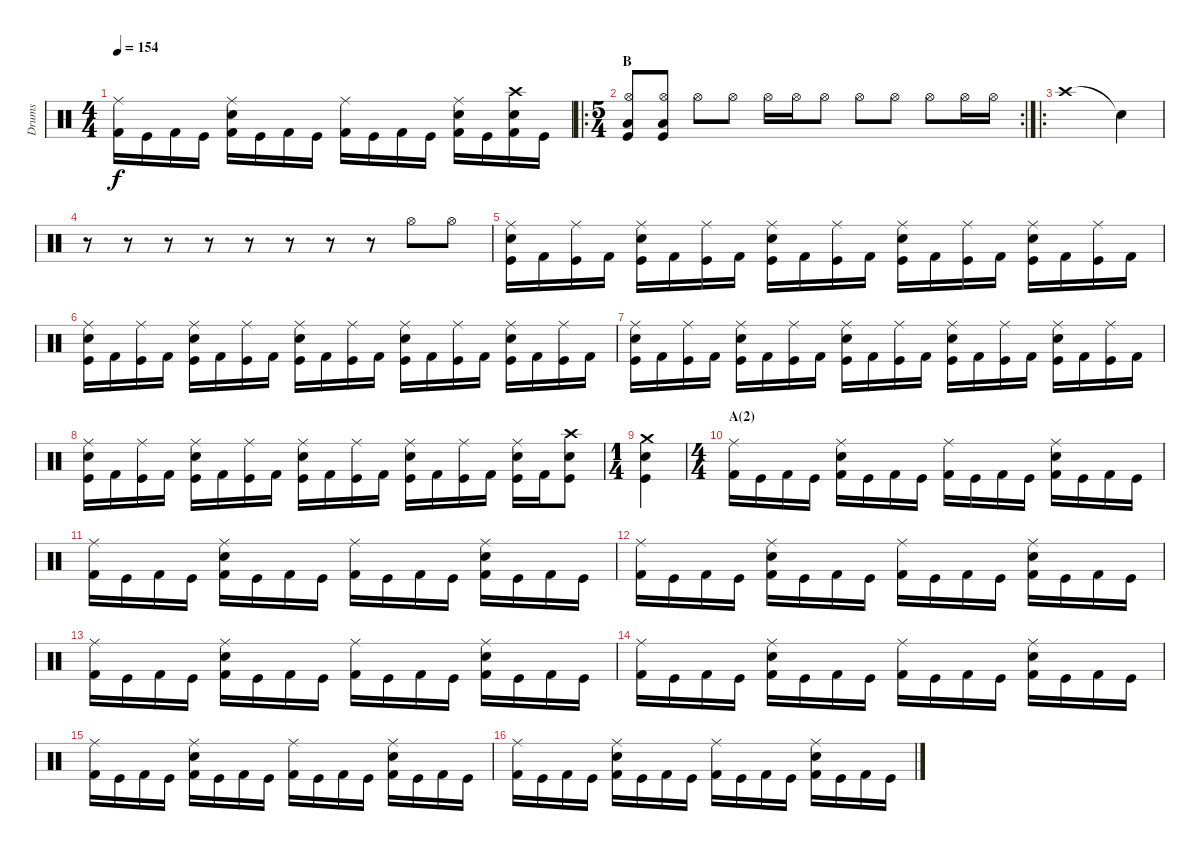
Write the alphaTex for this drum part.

\track ("Drums" "Drums") {instrument percussion}
\staff {score}
\articulation defaults
\ts (4 4)
\tempo 154
\clef neutral
\ks c
("Ride (middle)" "Kick (hit) 2").16{dy f} "Kick (hit)".16 "Kick (hit) 2".16 "Kick (hit)".16 ("Ride (middle)" "Electric Snare (hit)" "Kick (hit) 2").16 "Kick (hit)".16 "Kick (hit) 2".16 "Kick (hit)".16 ("Ride (middle)" "Kick (hit) 2").16 "Kick (hit)".16 "Kick (hit) 2".16 "Kick (hit)".16 ("Ride (middle)" "Electric Snare (hit)" "Kick (hit) 2").16 "Kick (hit)".16 ("Crash high (hit)" "Electric Snare (hit)" "Kick (hit) 2").16 "Kick (hit)".16 |
\ro
\rc 2
\ts (5 4)
\section ("" "B")
("Hi-Hat (open)" "Low Floor Tom (hit)" "Kick (hit)").8 ("Hi-Hat (open)" "Low Floor Tom (hit)" "Kick (hit)").8 "Hi-Hat (open)".8 "Hi-Hat (open)".8 "Hi-Hat (open)".16 "Hi-Hat (open)".16 "Hi-Hat (open)".8 "Hi-Hat (open)".8 "Hi-Hat (open)".8 "Hi-Hat (open)".8 "Hi-Hat (open)".16 "Hi-Hat (open)".16 |
\ro "Crash high (hit)".1 "Snare (hit)"{t}.4
|
r.8 r.8 r.8 r.8 r.8 r.8 r.8 r.8 "Hi-Hat (open)".8 "Hi-Hat (open)".8 |
("Ride (middle)" "Electric Snare (hit)" "Kick (hit)").16 "Kick (hit) 2".16 ("Ride (middle)" "Kick (hit)").16 "Kick (hit) 2".16 ("Ride (middle)" "Electric Snare (hit)" "Kick (hit)").16 "Kick (hit) 2".16 ("Ride (middle)" "Kick (hit)").16 "Kick (hit) 2".16 ("Ride (middle)" "Electric Snare (hit)" "Kick (hit)").16 "Kick (hit) 2".16 ("Ride (middle)" "Kick (hit)").16 "Kick (hit) 2".16 ("Ride (middle)" "Electric Snare (hit)" "Kick (hit)").16 "Kick (hit) 2".16 ("Ride (middle)" "Kick (hit)").16 "Kick (hit) 2".16 ("Ride (middle)" "Electric Snare (hit)" "Kick (hit)").16 "Kick (hit) 2".16 ("Ride (middle)" "Kick (hit)").16 "Kick (hit) 2".16 |
("Ride (middle)" "Electric Snare (hit)" "Kick (hit)").16 "Kick (hit) 2".16 ("Ride (middle)" "Kick (hit)").16 "Kick (hit) 2".16 ("Ride (middle)" "Electric Snare (hit)" "Kick (hit)").16 "Kick (hit) 2".16 ("Ride (middle)" "Kick (hit)").16 "Kick (hit) 2".16 ("Ride (middle)" "Electric Snare (hit)" "Kick (hit)").16 "Kick (hit) 2".16 ("Ride (middle)" "Kick (hit)").16 "Kick (hit) 2".16 ("Ride (middle)" "Electric Snare (hit)" "Kick (hit)").16 "Kick (hit) 2".16 ("Ride (middle)" "Kick (hit)").16 "Kick (hit) 2".16 ("Ride (middle)" "Electric Snare (hit)" "Kick (hit)").16 "Kick (hit) 2".16 ("Ride (middle)" "Kick (hit)").16 "Kick (hit) 2".16 |
("Ride (middle)" "Electric Snare (hit)" "Kick (hit)").16 "Kick (hit) 2".16 ("Ride (middle)" "Kick (hit)").16 "Kick (hit) 2".16 ("Ride (middle)" "Electric Snare (hit)" "Kick (hit)").16 "Kick (hit) 2".16 ("Ride (middle)" "Kick (hit)").16 "Kick (hit) 2".16 ("Ride (middle)" "Electric Snare (hit)" "Kick (hit)").16 "Kick (hit) 2".16 ("Ride (middle)" "Kick (hit)").16 "Kick (hit) 2".16 ("Ride (middle)" "Electric Snare (hit)" "Kick (hit)").16 "Kick (hit) 2".16 ("Ride (middle)" "Kick (hit)").16 "Kick (hit) 2".16 ("Ride (middle)" "Electric Snare (hit)" "Kick (hit)").16 "Kick (hit) 2".16 ("Ride (middle)" "Kick (hit)").16 "Kick (hit) 2".16 |
("Ride (middle)" "Electric Snare (hit)" "Kick (hit)").16 "Kick (hit) 2".16 ("Ride (middle)" "Kick (hit)").16 "Kick (hit) 2".16 ("Ride (middle)" "Electric Snare (hit)" "Kick (hit)").16 "Kick (hit) 2".16 ("Ride (middle)" "Kick (hit)").16 "Kick (hit) 2".16 ("Ride (middle)" "Electric Snare (hit)" "Kick (hit)").16 "Kick (hit) 2".16 ("Ride (middle)" "Kick (hit)").16 "Kick (hit) 2".16 ("Ride (middle)" "Electric Snare (hit)" "Kick (hit)").16 "Kick (hit) 2".16 ("Ride (middle)" "Kick (hit)").16 "Kick (hit) 2".16 ("Ride (middle)" "Electric Snare (hit)" "Kick (hit)").16 "Kick (hit) 2".16 ("Crash high (hit)" "Electric Snare (hit)" "Kick (hit)").8 |
\ts (1 4)
("Crash medium (hit)" "Electric Snare (hit)" "Kick (hit)").4 |
\ts (4 4)
\section ("" "A(2)")
("Ride (middle)" "Kick (hit) 2").16 "Kick (hit)".16 "Kick (hit) 2".16 "Kick (hit)".16 ("Ride (middle)" "Electric Snare (hit)" "Kick (hit) 2").16 "Kick (hit)".16 "Kick (hit) 2".16 "Kick (hit)".16 ("Ride (middle)" "Kick (hit) 2").16 "Kick (hit)".16 "Kick (hit) 2".16 "Kick (hit)".16 ("Ride (middle)" "Electric Snare (hit)" "Kick (hit) 2").16 "Kick (hit)".16 "Kick (hit) 2".16 "Kick (hit)".16 |
("Ride (middle)" "Kick (hit) 2").16 "Kick (hit)".16 "Kick (hit) 2".16 "Kick (hit)".16 ("Ride (middle)" "Electric Snare (hit)" "Kick (hit) 2").16 "Kick (hit)".16 "Kick (hit) 2".16 "Kick (hit)".16 ("Ride (middle)" "Kick (hit) 2").16 "Kick (hit)".16 "Kick (hit) 2".16 "Kick (hit)".16 ("Ride (middle)" "Electric Snare (hit)" "Kick (hit) 2").16 "Kick (hit)".16 "Kick (hit) 2".16 "Kick (hit)".16 |
("Ride (middle)" "Kick (hit) 2").16 "Kick (hit)".16 "Kick (hit) 2".16 "Kick (hit)".16 ("Ride (middle)" "Electric Snare (hit)" "Kick (hit) 2").16 "Kick (hit)".16 "Kick (hit) 2".16 "Kick (hit)".16 ("Ride (middle)" "Kick (hit) 2").16 "Kick (hit)".16 "Kick (hit) 2".16 "Kick (hit)".16 ("Ride (middle)" "Electric Snare (hit)" "Kick (hit) 2").16 "Kick (hit)".16 "Kick (hit) 2".16 "Kick (hit)".16 |
("Ride (middle)" "Kick (hit) 2").16 "Kick (hit)".16 "Kick (hit) 2".16 "Kick (hit)".16 ("Ride (middle)" "Electric Snare (hit)" "Kick (hit) 2").16 "Kick (hit)".16 "Kick (hit) 2".16 "Kick (hit)".16 ("Ride (middle)" "Kick (hit) 2").16 "Kick (hit)".16 "Kick (hit) 2".16 "Kick (hit)".16 ("Ride (middle)" "Electric Snare (hit)" "Kick (hit) 2").16 "Kick (hit)".16 "Kick (hit) 2".16 "Kick (hit)".16 |
("Ride (middle)" "Kick (hit) 2").16 "Kick (hit)".16 "Kick (hit) 2".16 "Kick (hit)".16 ("Ride (middle)" "Electric Snare (hit)" "Kick (hit) 2").16 "Kick (hit)".16 "Kick (hit) 2".16 "Kick (hit)".16 ("Ride (middle)" "Kick (hit) 2").16 "Kick (hit)".16 "Kick (hit) 2".16 "Kick (hit)".16 ("Ride (middle)" "Electric Snare (hit)" "Kick (hit) 2").16 "Kick (hit)".16 "Kick (hit) 2".16 "Kick (hit)".16 |
("Ride (middle)" "Kick (hit) 2").16 "Kick (hit)".16 "Kick (hit) 2".16 "Kick (hit)".16 ("Ride (middle)" "Electric Snare (hit)" "Kick (hit) 2").16 "Kick (hit)".16 "Kick (hit) 2".16 "Kick (hit)".16 ("Ride (middle)" "Kick (hit) 2").16 "Kick (hit)".16 "Kick (hit) 2".16 "Kick (hit)".16 ("Ride (middle)" "Electric Snare (hit)" "Kick (hit) 2").16 "Kick (hit)".16 "Kick (hit) 2".16 "Kick (hit)".16 |
("Ride (middle)" "Kick (hit) 2").16 "Kick (hit)".16 "Kick (hit) 2".16 "Kick (hit)".16 ("Ride (middle)" "Electric Snare (hit)" "Kick (hit) 2").16 "Kick (hit)".16 "Kick (hit) 2".16 "Kick (hit)".16 ("Ride (middle)" "Kick (hit) 2").16 "Kick (hit)".16 "Kick (hit) 2".16 "Kick (hit)".16 ("Ride (middle)" "Electric Snare (hit)" "Kick (hit) 2").16 "Kick (hit)".16 "Kick (hit) 2".16 "Kick (hit)".16
